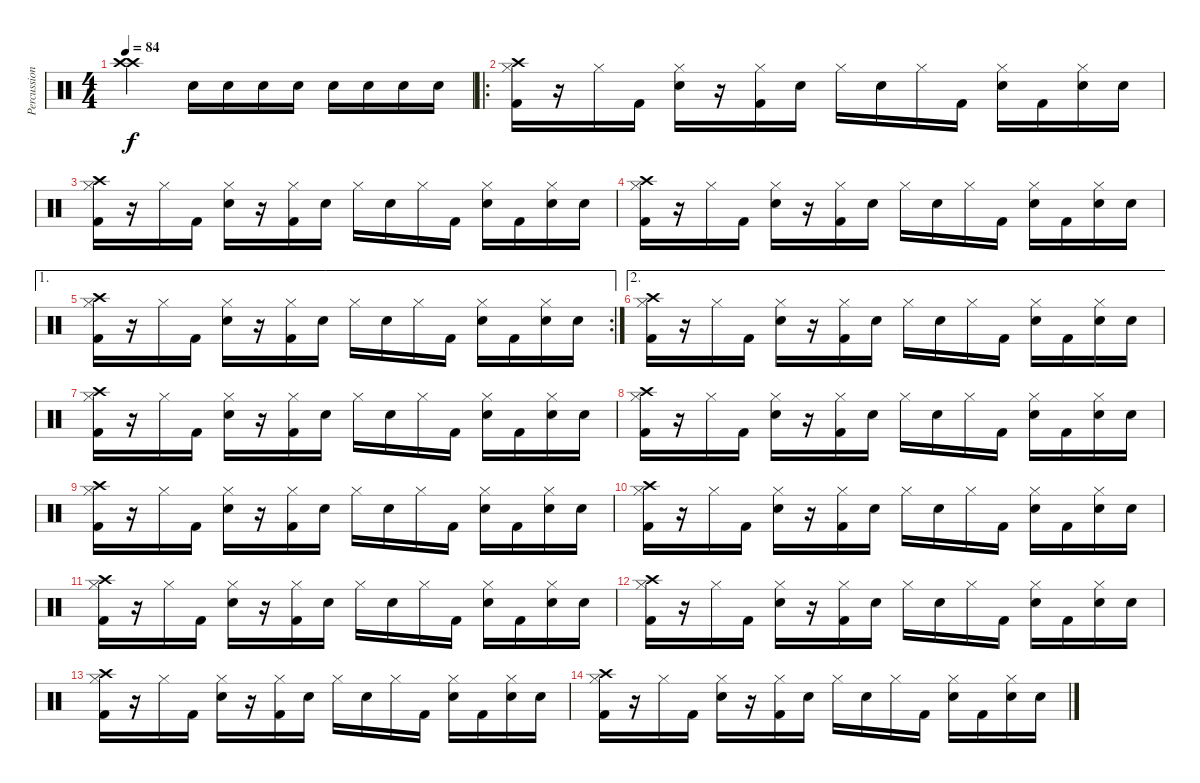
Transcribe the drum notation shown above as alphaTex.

\track ("Percussion" "Percussion") {instrument percussion}
\staff {score}
\articulation defaults
\ts (4 4)
\tempo 84
\clef neutral
\ks c
("Crash high (hit)" "Crash high (hit)").2{dy f} "Snare (hit) 2".16 "Snare (hit) 2".16 "Snare (hit) 2".16 "Snare (hit) 2".16 "Snare (hit) 2".16 "Snare (hit) 2".16 "Snare (hit) 2".16 "Snare (hit) 2".16 |
\ro
("Crash high (hit)" "Hi-Hat (closed)" "Kick (hit) 2").16 r.16 "Hi-Hat (closed)".16 "Kick (hit) 2".16 ("Hi-Hat (closed)" "Snare (hit) 2").16 r.16 ("Hi-Hat (closed)" "Kick (hit) 2").16 "Snare (hit) 2".16 "Hi-Hat (closed)".16 "Snare (hit) 2".16 "Hi-Hat (closed)".16 "Kick (hit) 2".16 ("Hi-Hat (closed)" "Snare (hit) 2").16 "Kick (hit) 2".16 ("Hi-Hat (closed)" "Snare (hit) 2").16 "Snare (hit) 2".16 |
("Crash high (hit)" "Hi-Hat (closed)" "Kick (hit) 2").16 r.16 "Hi-Hat (closed)".16 "Kick (hit) 2".16 ("Hi-Hat (closed)" "Snare (hit) 2").16 r.16 ("Hi-Hat (closed)" "Kick (hit) 2").16 "Snare (hit) 2".16 "Hi-Hat (closed)".16 "Snare (hit) 2".16 "Hi-Hat (closed)".16 "Kick (hit) 2".16 ("Hi-Hat (closed)" "Snare (hit) 2").16 "Kick (hit) 2".16 ("Hi-Hat (closed)" "Snare (hit) 2").16 "Snare (hit) 2".16 |
("Crash high (hit)" "Hi-Hat (closed)" "Kick (hit) 2").16 r.16 "Hi-Hat (closed)".16 "Kick (hit) 2".16 ("Hi-Hat (closed)" "Snare (hit) 2").16 r.16 ("Hi-Hat (closed)" "Kick (hit) 2").16 "Snare (hit) 2".16 "Hi-Hat (closed)".16 "Snare (hit) 2".16 "Hi-Hat (closed)".16 "Kick (hit) 2".16 ("Hi-Hat (closed)" "Snare (hit) 2").16 "Kick (hit) 2".16 ("Hi-Hat (closed)" "Snare (hit) 2").16 "Snare (hit) 2".16 |
\ae 1
\rc 2
("Crash high (hit)" "Hi-Hat (closed)" "Kick (hit) 2").16 r.16 "Hi-Hat (closed)".16 "Kick (hit) 2".16 ("Hi-Hat (closed)" "Snare (hit) 2").16 r.16 ("Hi-Hat (closed)" "Kick (hit) 2").16 "Snare (hit) 2".16 "Hi-Hat (closed)".16 "Snare (hit) 2".16 "Hi-Hat (closed)".16 "Kick (hit) 2".16 ("Hi-Hat (closed)" "Snare (hit) 2").16 "Kick (hit) 2".16 ("Hi-Hat (closed)" "Snare (hit) 2").16 "Snare (hit) 2".16 |
\ae 2
("Crash high (hit)" "Hi-Hat (closed)" "Kick (hit) 2").16 r.16 "Hi-Hat (closed)".16 "Kick (hit) 2".16 ("Hi-Hat (closed)" "Snare (hit) 2").16 r.16 ("Hi-Hat (closed)" "Kick (hit) 2").16 "Snare (hit) 2".16 "Hi-Hat (closed)".16 "Snare (hit) 2".16 "Hi-Hat (closed)".16 "Kick (hit) 2".16 ("Hi-Hat (closed)" "Snare (hit) 2").16 "Kick (hit) 2".16 ("Hi-Hat (closed)" "Snare (hit) 2").16 "Snare (hit) 2".16 |
("Crash high (hit)" "Hi-Hat (closed)" "Kick (hit) 2").16 r.16 "Hi-Hat (closed)".16 "Kick (hit) 2".16 ("Hi-Hat (closed)" "Snare (hit) 2").16 r.16 ("Hi-Hat (closed)" "Kick (hit) 2").16 "Snare (hit) 2".16 "Hi-Hat (closed)".16 "Snare (hit) 2".16 "Hi-Hat (closed)".16 "Kick (hit) 2".16 ("Hi-Hat (closed)" "Snare (hit) 2").16 "Kick (hit) 2".16 ("Hi-Hat (closed)" "Snare (hit) 2").16 "Snare (hit) 2".16 |
("Crash high (hit)" "Hi-Hat (closed)" "Kick (hit) 2").16 r.16 "Hi-Hat (closed)".16 "Kick (hit) 2".16 ("Hi-Hat (closed)" "Snare (hit) 2").16 r.16 ("Hi-Hat (closed)" "Kick (hit) 2").16 "Snare (hit) 2".16 "Hi-Hat (closed)".16 "Snare (hit) 2".16 "Hi-Hat (closed)".16 "Kick (hit) 2".16 ("Hi-Hat (closed)" "Snare (hit) 2").16 "Kick (hit) 2".16 ("Hi-Hat (closed)" "Snare (hit) 2").16 "Snare (hit) 2".16 |
("Crash high (hit)" "Hi-Hat (closed)" "Kick (hit) 2").16 r.16 "Hi-Hat (closed)".16 "Kick (hit) 2".16 ("Hi-Hat (closed)" "Snare (hit) 2").16 r.16 ("Hi-Hat (closed)" "Kick (hit) 2").16 "Snare (hit) 2".16 "Hi-Hat (closed)".16 "Snare (hit) 2".16 "Hi-Hat (closed)".16 "Kick (hit) 2".16 ("Hi-Hat (closed)" "Snare (hit) 2").16 "Kick (hit) 2".16 ("Hi-Hat (closed)" "Snare (hit) 2").16 "Snare (hit) 2".16 |
("Crash high (hit)" "Hi-Hat (closed)" "Kick (hit) 2").16 r.16 "Hi-Hat (closed)".16 "Kick (hit) 2".16 ("Hi-Hat (closed)" "Snare (hit) 2").16 r.16 ("Hi-Hat (closed)" "Kick (hit) 2").16 "Snare (hit) 2".16 "Hi-Hat (closed)".16 "Snare (hit) 2".16 "Hi-Hat (closed)".16 "Kick (hit) 2".16 ("Hi-Hat (closed)" "Snare (hit) 2").16 "Kick (hit) 2".16 ("Hi-Hat (closed)" "Snare (hit) 2").16 "Snare (hit) 2".16 |
("Crash high (hit)" "Hi-Hat (closed)" "Kick (hit) 2").16 r.16 "Hi-Hat (closed)".16 "Kick (hit) 2".16 ("Hi-Hat (closed)" "Snare (hit) 2").16 r.16 ("Hi-Hat (closed)" "Kick (hit) 2").16 "Snare (hit) 2".16 "Hi-Hat (closed)".16 "Snare (hit) 2".16 "Hi-Hat (closed)".16 "Kick (hit) 2".16 ("Hi-Hat (closed)" "Snare (hit) 2").16 "Kick (hit) 2".16 ("Hi-Hat (closed)" "Snare (hit) 2").16 "Snare (hit) 2".16 |
("Crash high (hit)" "Hi-Hat (closed)" "Kick (hit) 2").16 r.16 "Hi-Hat (closed)".16 "Kick (hit) 2".16 ("Hi-Hat (closed)" "Snare (hit) 2").16 r.16 ("Hi-Hat (closed)" "Kick (hit) 2").16 "Snare (hit) 2".16 "Hi-Hat (closed)".16 "Snare (hit) 2".16 "Hi-Hat (closed)".16 "Kick (hit) 2".16 ("Hi-Hat (closed)" "Snare (hit) 2").16 "Kick (hit) 2".16 ("Hi-Hat (closed)" "Snare (hit) 2").16 "Snare (hit) 2".16 |
("Crash high (hit)" "Hi-Hat (closed)" "Kick (hit) 2").16 r.16 "Hi-Hat (closed)".16 "Kick (hit) 2".16 ("Hi-Hat (closed)" "Snare (hit) 2").16 r.16 ("Hi-Hat (closed)" "Kick (hit) 2").16 "Snare (hit) 2".16 "Hi-Hat (closed)".16 "Snare (hit) 2".16 "Hi-Hat (closed)".16 "Kick (hit) 2".16 ("Hi-Hat (closed)" "Snare (hit) 2").16 "Kick (hit) 2".16 ("Hi-Hat (closed)" "Snare (hit) 2").16 "Snare (hit) 2".16 |
("Crash high (hit)" "Hi-Hat (closed)" "Kick (hit) 2").16 r.16 "Hi-Hat (closed)".16 "Kick (hit) 2".16 ("Hi-Hat (closed)" "Snare (hit) 2").16 r.16 ("Hi-Hat (closed)" "Kick (hit) 2").16 "Snare (hit) 2".16 "Hi-Hat (closed)".16 "Snare (hit) 2".16 "Hi-Hat (closed)".16 "Kick (hit) 2".16 ("Hi-Hat (closed)" "Snare (hit) 2").16 "Kick (hit) 2".16 ("Hi-Hat (closed)" "Snare (hit) 2").16 "Snare (hit) 2".16
